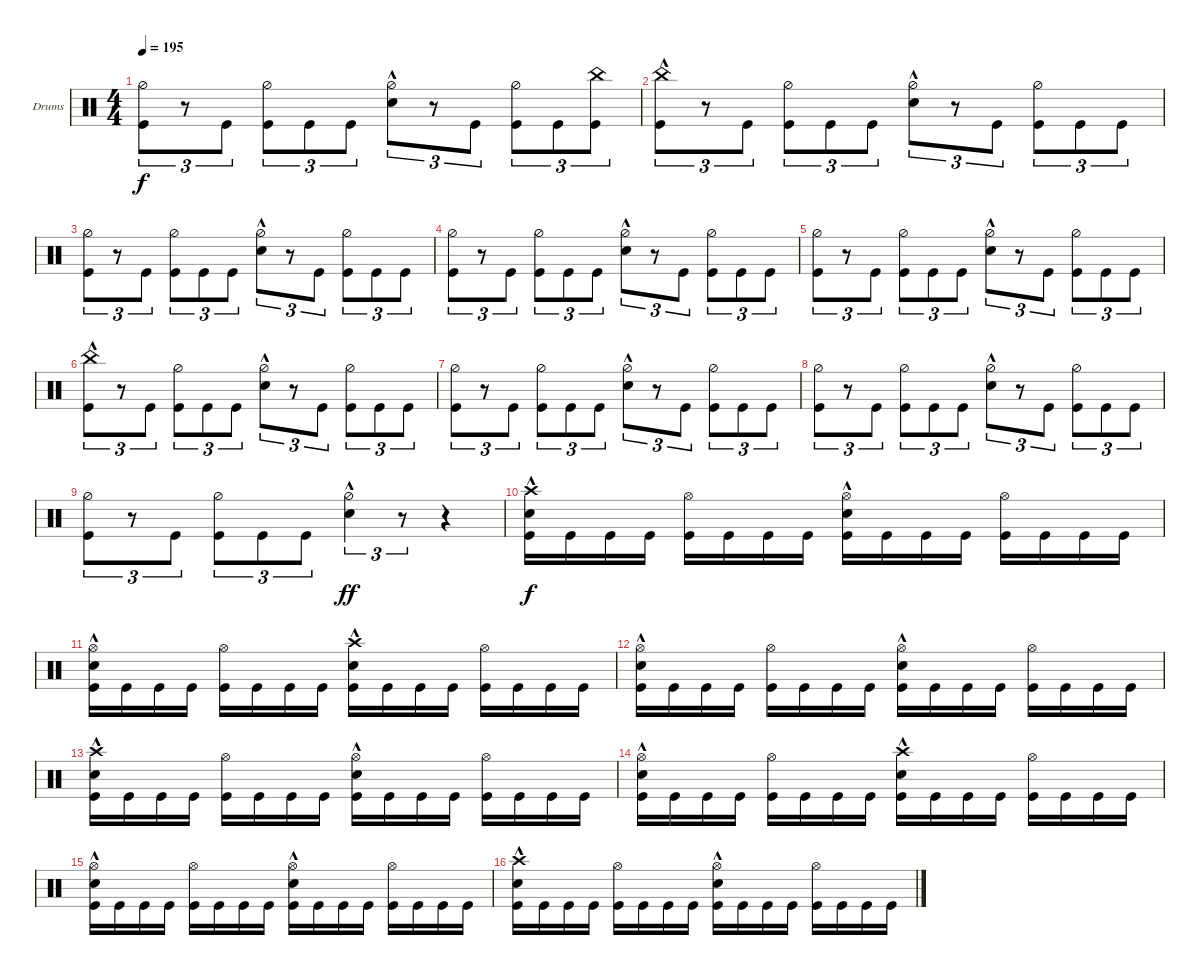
\defaultSystemsLayout 4
\bracketExtendMode groupsimilarinstruments
\firstSystemTrackNameOrientation horizontal
\otherSystemsTrackNameOrientation horizontal
\track ("Drumkit" "Drums") {instrument percussion}
\staff {score}
\articulation defaults
\ts (4 4)
\tempo 195
\clef neutral
\ks c
("Kick (hit)" "Hi-Hat (half)").8{tu (3 2) dy f} r.8{tu (3 2)} "Kick (hit)".8{tu (3 2)} ("Kick (hit)" "Hi-Hat (half)").8{tu (3 2)} "Kick (hit)".8{tu (3 2)} "Kick (hit)".8{tu (3 2)} ("Hi-Hat (half)" "Snare (hit) 2"{hac}).8{tu (3 2)} r.8{tu (3 2)} "Kick (hit)".8{tu (3 2)} ("Kick (hit)" "Hi-Hat (half)").8{tu (3 2)} "Kick (hit)".8{tu (3 2)} ("Kick (hit)" "China (hit)").8{tu (3 2)} |
("Kick (hit)" "China (hit)"{hac}).8{tu (3 2)} r.8{tu (3 2)} "Kick (hit)".8{tu (3 2)} ("Kick (hit)" "Hi-Hat (half)").8{tu (3 2)} "Kick (hit)".8{tu (3 2)} "Kick (hit)".8{tu (3 2)} ("Hi-Hat (half)" "Snare (hit) 2"{hac}).8{tu (3 2)} r.8{tu (3 2)} "Kick (hit)".8{tu (3 2)} ("Kick (hit)" "Hi-Hat (half)").8{tu (3 2)} "Kick (hit)".8{tu (3 2)} "Kick (hit)".8{tu (3 2)} |
("Kick (hit)" "Hi-Hat (half)").8{tu (3 2)} r.8{tu (3 2)} "Kick (hit)".8{tu (3 2)} ("Kick (hit)" "Hi-Hat (half)").8{tu (3 2)} "Kick (hit)".8{tu (3 2)} "Kick (hit)".8{tu (3 2)} ("Hi-Hat (half)" "Snare (hit) 2"{hac}).8{tu (3 2)} r.8{tu (3 2)} "Kick (hit)".8{tu (3 2)} ("Kick (hit)" "Hi-Hat (half)").8{tu (3 2)} "Kick (hit)".8{tu (3 2)} "Kick (hit)".8{tu (3 2)} |
("Kick (hit)" "Hi-Hat (half)").8{tu (3 2)} r.8{tu (3 2)} "Kick (hit)".8{tu (3 2)} ("Kick (hit)" "Hi-Hat (half)").8{tu (3 2)} "Kick (hit)".8{tu (3 2)} "Kick (hit)".8{tu (3 2)} ("Hi-Hat (half)" "Snare (hit) 2"{hac}).8{tu (3 2)} r.8{tu (3 2)} "Kick (hit)".8{tu (3 2)} ("Kick (hit)" "Hi-Hat (half)").8{tu (3 2)} "Kick (hit)".8{tu (3 2)} "Kick (hit)".8{tu (3 2)} |
("Kick (hit)" "Hi-Hat (half)").8{tu (3 2)} r.8{tu (3 2)} "Kick (hit)".8{tu (3 2)} ("Kick (hit)" "Hi-Hat (half)").8{tu (3 2)} "Kick (hit)".8{tu (3 2)} "Kick (hit)".8{tu (3 2)} ("Hi-Hat (half)" "Snare (hit) 2"{hac}).8{tu (3 2)} r.8{tu (3 2)} "Kick (hit)".8{tu (3 2)} ("Kick (hit)" "Hi-Hat (half)").8{tu (3 2)} "Kick (hit)".8{tu (3 2)} "Kick (hit)".8{tu (3 2)} |
("Kick (hit)" "China (hit)"{hac}).8{tu (3 2)} r.8{tu (3 2)} "Kick (hit)".8{tu (3 2)} ("Kick (hit)" "Hi-Hat (half)").8{tu (3 2)} "Kick (hit)".8{tu (3 2)} "Kick (hit)".8{tu (3 2)} ("Hi-Hat (half)" "Snare (hit) 2"{hac}).8{tu (3 2)} r.8{tu (3 2)} "Kick (hit)".8{tu (3 2)} ("Kick (hit)" "Hi-Hat (half)").8{tu (3 2)} "Kick (hit)".8{tu (3 2)} "Kick (hit)".8{tu (3 2)} |
("Kick (hit)" "Hi-Hat (half)").8{tu (3 2)} r.8{tu (3 2)} "Kick (hit)".8{tu (3 2)} ("Kick (hit)" "Hi-Hat (half)").8{tu (3 2)} "Kick (hit)".8{tu (3 2)} "Kick (hit)".8{tu (3 2)} ("Hi-Hat (half)" "Snare (hit) 2"{hac}).8{tu (3 2)} r.8{tu (3 2)} "Kick (hit)".8{tu (3 2)} ("Kick (hit)" "Hi-Hat (half)").8{tu (3 2)} "Kick (hit)".8{tu (3 2)} "Kick (hit)".8{tu (3 2)} |
("Kick (hit)" "Hi-Hat (half)").8{tu (3 2)} r.8{tu (3 2)} "Kick (hit)".8{tu (3 2)} ("Kick (hit)" "Hi-Hat (half)").8{tu (3 2)} "Kick (hit)".8{tu (3 2)} "Kick (hit)".8{tu (3 2)} ("Hi-Hat (half)" "Snare (hit) 2"{hac}).8{tu (3 2)} r.8{tu (3 2)} "Kick (hit)".8{tu (3 2)} ("Kick (hit)" "Hi-Hat (half)").8{tu (3 2)} "Kick (hit)".8{tu (3 2)} "Kick (hit)".8{tu (3 2)} |
("Kick (hit)" "Hi-Hat (half)").8{tu (3 2)} r.8{tu (3 2)} "Kick (hit)".8{tu (3 2)} ("Kick (hit)" "Hi-Hat (half)").8{tu (3 2)} "Kick (hit)".8{tu (3 2)} "Kick (hit)".8{tu (3 2)} ("Hi-Hat (half)" "Snare (hit) 2"{hac}).4{tu (3 2) dy ff} r.8{tu (3 2)} r.4 |
("Kick (hit)" "Snare (hit) 2"{hac} "Crash high (hit)").16{dy f} "Kick (hit)".16 "Kick (hit)".16 "Kick (hit)".16 ("Kick (hit)" "Hi-Hat (open)").16 "Kick (hit)".16 "Kick (hit)".16 "Kick (hit)".16 ("Kick (hit)" "Hi-Hat (open)" "Snare (hit) 2"{hac}).16 "Kick (hit)".16 "Kick (hit)".16 "Kick (hit)".16 ("Kick (hit)" "Hi-Hat (open)").16 "Kick (hit)".16 "Kick (hit)".16 "Kick (hit)".16 |
("Kick (hit)" "Snare (hit) 2"{hac} "Hi-Hat (open)").16 "Kick (hit)".16 "Kick (hit)".16 "Kick (hit)".16 ("Kick (hit)" "Hi-Hat (open)").16 "Kick (hit)".16 "Kick (hit)".16 "Kick (hit)".16 ("Kick (hit)" "Snare (hit) 2"{hac} "Crash high (hit)").16 "Kick (hit)".16 "Kick (hit)".16 "Kick (hit)".16 ("Kick (hit)" "Hi-Hat (open)").16 "Kick (hit)".16 "Kick (hit)".16 "Kick (hit)".16 |
("Kick (hit)" "Snare (hit) 2"{hac} "Hi-Hat (open)").16 "Kick (hit)".16 "Kick (hit)".16 "Kick (hit)".16 ("Kick (hit)" "Hi-Hat (open)").16 "Kick (hit)".16 "Kick (hit)".16 "Kick (hit)".16 ("Kick (hit)" "Snare (hit) 2"{hac} "Hi-Hat (open)").16 "Kick (hit)".16 "Kick (hit)".16 "Kick (hit)".16 ("Kick (hit)" "Hi-Hat (open)").16 "Kick (hit)".16 "Kick (hit)".16 "Kick (hit)".16 |
("Kick (hit)" "Snare (hit) 2"{hac} "Crash high (hit)").16 "Kick (hit)".16 "Kick (hit)".16 "Kick (hit)".16 ("Kick (hit)" "Hi-Hat (open)").16 "Kick (hit)".16 "Kick (hit)".16 "Kick (hit)".16 ("Kick (hit)" "Hi-Hat (open)" "Snare (hit) 2"{hac}).16 "Kick (hit)".16 "Kick (hit)".16 "Kick (hit)".16 ("Kick (hit)" "Hi-Hat (open)").16 "Kick (hit)".16 "Kick (hit)".16 "Kick (hit)".16 |
("Kick (hit)" "Snare (hit) 2"{hac} "Hi-Hat (open)").16 "Kick (hit)".16 "Kick (hit)".16 "Kick (hit)".16 ("Kick (hit)" "Hi-Hat (open)").16 "Kick (hit)".16 "Kick (hit)".16 "Kick (hit)".16 ("Kick (hit)" "Snare (hit) 2"{hac} "Crash high (hit)").16 "Kick (hit)".16 "Kick (hit)".16 "Kick (hit)".16 ("Kick (hit)" "Hi-Hat (open)").16 "Kick (hit)".16 "Kick (hit)".16 "Kick (hit)".16 |
("Kick (hit)" "Snare (hit) 2"{hac} "Hi-Hat (open)").16 "Kick (hit)".16 "Kick (hit)".16 "Kick (hit)".16 ("Kick (hit)" "Hi-Hat (open)").16 "Kick (hit)".16 "Kick (hit)".16 "Kick (hit)".16 ("Kick (hit)" "Snare (hit) 2"{hac} "Hi-Hat (open)").16 "Kick (hit)".16 "Kick (hit)".16 "Kick (hit)".16 ("Kick (hit)" "Hi-Hat (open)").16 "Kick (hit)".16 "Kick (hit)".16 "Kick (hit)".16 |
("Kick (hit)" "Snare (hit) 2"{hac} "Crash high (hit)").16 "Kick (hit)".16 "Kick (hit)".16 "Kick (hit)".16 ("Kick (hit)" "Hi-Hat (open)").16 "Kick (hit)".16 "Kick (hit)".16 "Kick (hit)".16 ("Kick (hit)" "Hi-Hat (open)" "Snare (hit) 2"{hac}).16 "Kick (hit)".16 "Kick (hit)".16 "Kick (hit)".16 ("Kick (hit)" "Hi-Hat (open)").16 "Kick (hit)".16 "Kick (hit)".16 "Kick (hit)".16
